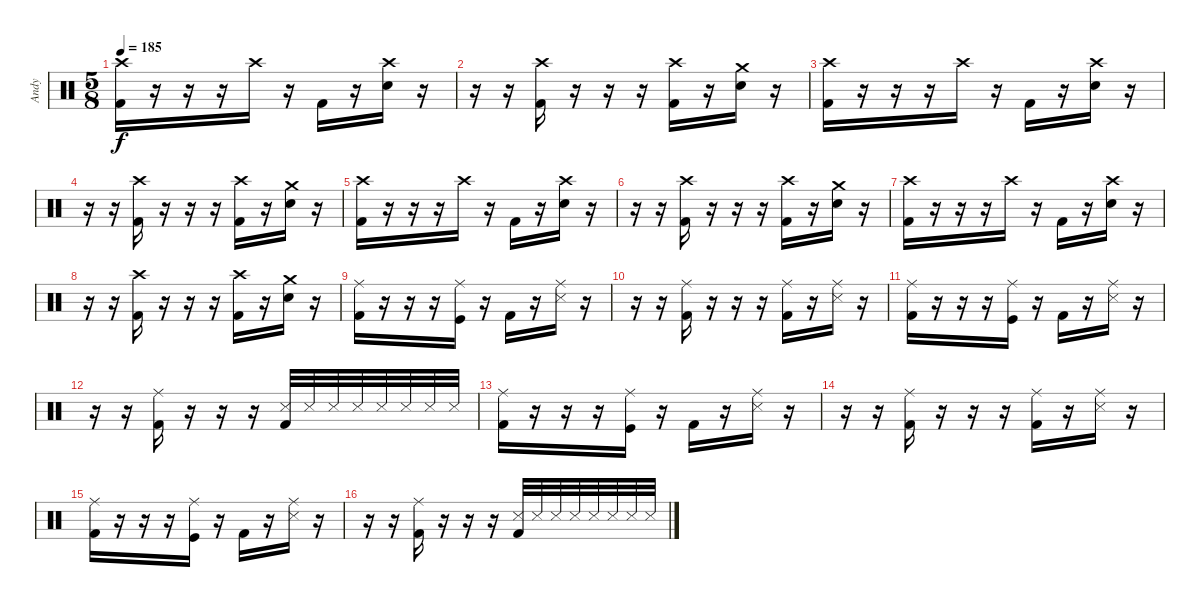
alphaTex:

\track ("Andy" "Andy") {instrument percussion}
\staff {score}
\articulation defaults
\ts (5 8)
\tempo 185
\clef neutral
\ks c
("Crash high (hit)" "Kick (hit) 2").16{dy f} r.16 r.16 r.16 "Crash high (hit)".16 r.16 "Kick (hit) 2".16 r.16 ("Crash high (hit)" "Electric Snare (hit)").16 r.16 |
r.16 r.16 ("Crash high (hit)" "Kick (hit) 2").16 r.16 r.16 r.16 ("Crash high (hit)" "Kick (hit) 2").16 r.16 ("Crash medium (hit)" "Electric Snare (hit)").16 r.16 |
("Crash high (hit)" "Kick (hit) 2").16 r.16 r.16 r.16 "Crash high (hit)".16 r.16 "Kick (hit) 2".16 r.16 ("Crash high (hit)" "Electric Snare (hit)").16 r.16 |
r.16 r.16 ("Crash high (hit)" "Kick (hit) 2").16 r.16 r.16 r.16 ("Crash high (hit)" "Kick (hit) 2").16 r.16 ("Crash medium (hit)" "Electric Snare (hit)").16 r.16 |
("Crash high (hit)" "Kick (hit) 2").16 r.16 r.16 r.16 "Crash high (hit)".16 r.16 "Kick (hit) 2".16 r.16 ("Crash high (hit)" "Electric Snare (hit)").16 r.16 |
r.16 r.16 ("Crash high (hit)" "Kick (hit) 2").16 r.16 r.16 r.16 ("Crash high (hit)" "Kick (hit) 2").16 r.16 ("Crash medium (hit)" "Electric Snare (hit)").16 r.16 |
("Crash high (hit)" "Kick (hit) 2").16 r.16 r.16 r.16 "Crash high (hit)".16 r.16 "Kick (hit) 2".16 r.16 ("Crash high (hit)" "Electric Snare (hit)").16 r.16 |
r.16 r.16 ("Crash high (hit)" "Kick (hit) 2").16 r.16 r.16 r.16 ("Crash high (hit)" "Kick (hit) 2").16 r.16 ("Crash medium (hit)" "Electric Snare (hit)").16 r.16 |
("Ride (middle)" "Kick (hit) 2").16 r.16 r.16 r.16 ("Ride (middle)" "Kick (hit)").16 r.16 "Kick (hit) 2".16 r.16 ("Ride (middle)" "Snare (side stick) 3").16 r.16 |
r.16 r.16 ("Ride (middle)" "Kick (hit) 2").16 r.16 r.16 r.16 ("Ride (middle)" "Kick (hit) 2").16 r.16 ("Ride (middle)" "Snare (side stick) 3").16 r.16 |
("Ride (middle)" "Kick (hit) 2").16 r.16 r.16 r.16 ("Ride (middle)" "Kick (hit)").16 r.16 "Kick (hit) 2".16 r.16 ("Ride (middle)" "Snare (side stick) 3").16 r.16 |
r.16 r.16 ("Ride (middle)" "Kick (hit) 2").16 r.16 r.16 r.16 ("Snare (side stick) 3" "Kick (hit) 2").32 "Snare (side stick) 3".32 "Snare (side stick) 3".32 "Snare (side stick) 3".32 "Snare (side stick) 3".32 "Snare (side stick) 3".32 "Snare (side stick) 3".32 "Snare (side stick) 3".32 |
("Ride (middle)" "Kick (hit) 2").16 r.16 r.16 r.16 ("Ride (middle)" "Kick (hit)").16 r.16 "Kick (hit) 2".16 r.16 ("Ride (middle)" "Snare (side stick) 3").16 r.16 |
r.16 r.16 ("Ride (middle)" "Kick (hit) 2").16 r.16 r.16 r.16 ("Ride (middle)" "Kick (hit) 2").16 r.16 ("Ride (middle)" "Snare (side stick) 3").16 r.16 |
("Ride (middle)" "Kick (hit) 2").16 r.16 r.16 r.16 ("Ride (middle)" "Kick (hit)").16 r.16 "Kick (hit) 2".16 r.16 ("Ride (middle)" "Snare (side stick) 3").16 r.16 |
r.16 r.16 ("Ride (middle)" "Kick (hit) 2").16 r.16 r.16 r.16 ("Snare (side stick) 3" "Kick (hit) 2").32 "Snare (side stick) 3".32 "Snare (side stick) 3".32 "Snare (side stick) 3".32 "Snare (side stick) 3".32 "Snare (side stick) 3".32 "Snare (side stick) 3".32 "Snare (side stick) 3".32
